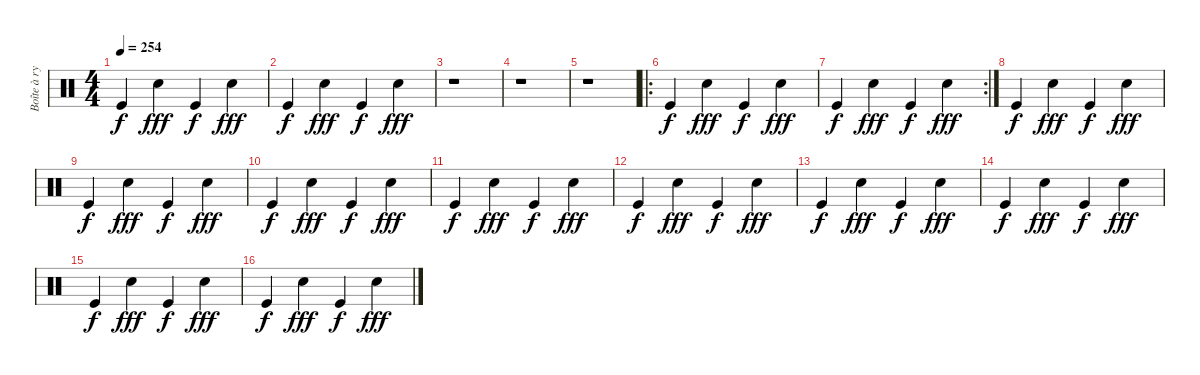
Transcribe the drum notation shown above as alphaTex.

\track ("Boîte à rytmes" "Boîte à ry") {instrument percussion}
\staff {score}
\articulation defaults
\ts (4 4)
\tempo 254
\clef neutral
\ks c "Kick (hit)".4{dy f} "Snare (hit) 2".4{dy fff} "Kick (hit)".4{dy f} "Snare (hit) 2".4{dy fff}
|
"Kick (hit)".4{dy f} "Snare (hit) 2".4{dy fff} "Kick (hit)".4{dy f} "Snare (hit) 2".4{dy fff} |
r.1 |
r.1 |
r.1 |
\ro "Kick (hit)".4{dy f} "Snare (hit) 2".4{dy fff} "Kick (hit)".4{dy f} "Snare (hit) 2".4{dy fff}
|
\rc 2 "Kick (hit)".4{dy f} "Snare (hit) 2".4{dy fff} "Kick (hit)".4{dy f} "Snare (hit) 2".4{dy fff}
|
"Kick (hit)".4{dy f} "Snare (hit) 2".4{dy fff} "Kick (hit)".4{dy f} "Snare (hit) 2".4{dy fff} |
"Kick (hit)".4{dy f} "Snare (hit) 2".4{dy fff} "Kick (hit)".4{dy f} "Snare (hit) 2".4{dy fff} |
"Kick (hit)".4{dy f} "Snare (hit) 2".4{dy fff} "Kick (hit)".4{dy f} "Snare (hit) 2".4{dy fff} |
"Kick (hit)".4{dy f} "Snare (hit) 2".4{dy fff} "Kick (hit)".4{dy f} "Snare (hit) 2".4{dy fff} |
"Kick (hit)".4{dy f} "Snare (hit) 2".4{dy fff} "Kick (hit)".4{dy f} "Snare (hit) 2".4{dy fff} |
"Kick (hit)".4{dy f} "Snare (hit) 2".4{dy fff} "Kick (hit)".4{dy f} "Snare (hit) 2".4{dy fff} |
"Kick (hit)".4{dy f} "Snare (hit) 2".4{dy fff} "Kick (hit)".4{dy f} "Snare (hit) 2".4{dy fff} |
"Kick (hit)".4{dy f} "Snare (hit) 2".4{dy fff} "Kick (hit)".4{dy f} "Snare (hit) 2".4{dy fff} |
"Kick (hit)".4{dy f} "Snare (hit) 2".4{dy fff} "Kick (hit)".4{dy f} "Snare (hit) 2".4{dy fff}
